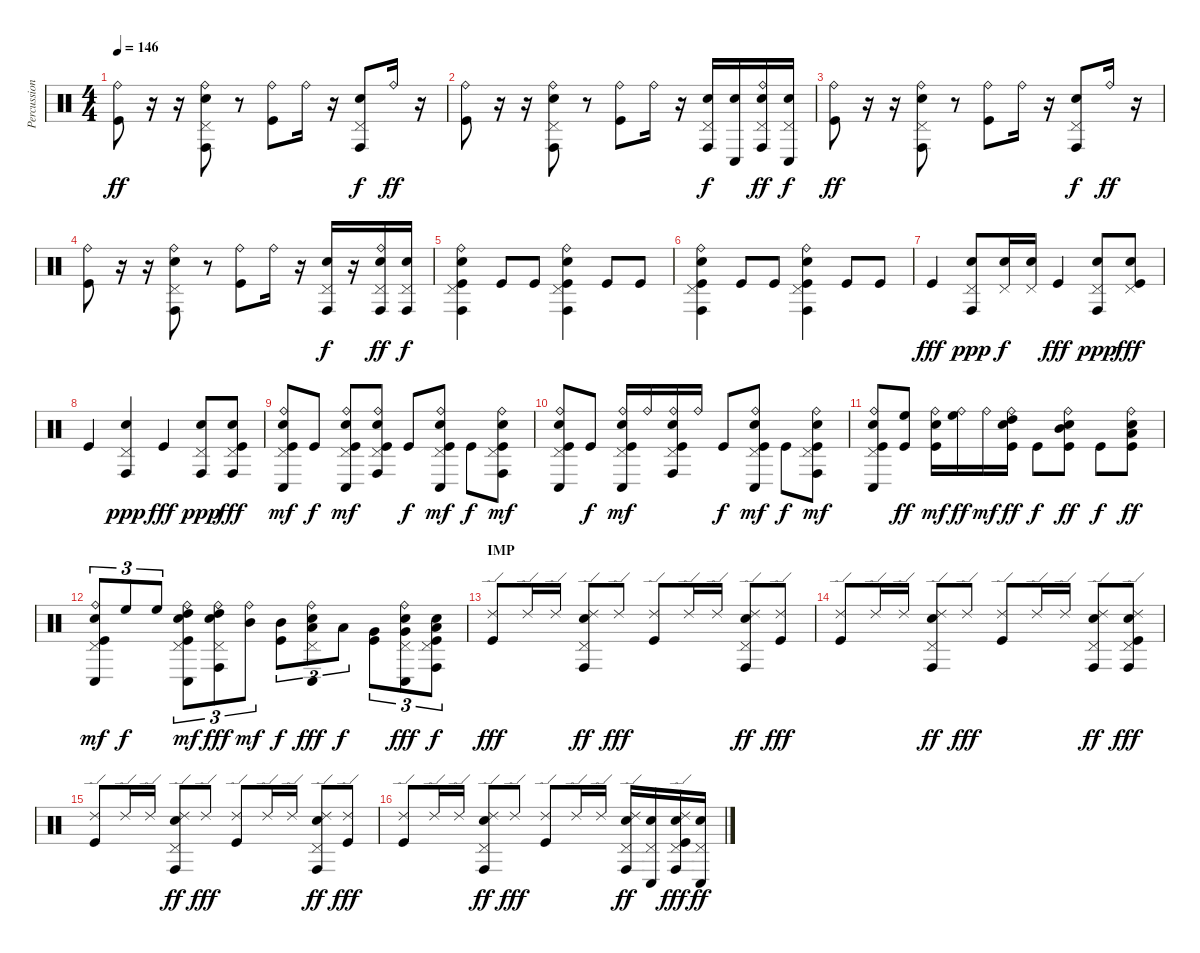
\track ("Percussion" "Percussion") {instrument percussion}
\staff {score}
\articulation defaults
\ts (4 4)
\tempo 146
\clef neutral
\ks c
("Ride (bell)" "Kick (hit)").8{dy ff} r.16 r.16 ("Ride (bell)" "Pedal Hi-Hat (hit)" "Conga high (hit)" "Electric Snare (hit)").8 r.8 ("Ride (bell)" "Kick (hit)").8 "Ride (bell)".16 r.16 ("Pedal Hi-Hat (hit)" "Conga high (hit)" "Electric Snare (hit)").8{dy f} "Ride (bell)".16{dy ff} r.16 |
("Ride (bell)" "Kick (hit)").8 r.16 r.16 ("Ride (bell)" "Pedal Hi-Hat (hit)" "Conga high (hit)" "Electric Snare (hit)").8 r.8 ("Ride (bell)" "Kick (hit)").8 "Ride (bell)".16 r.16 ("Pedal Hi-Hat (hit)" "Conga high (hit)" "Electric Snare (hit)").16{dy f} ("Conga low (hit)" "Electric Snare (hit)").16 ("Ride (bell)" "Pedal Hi-Hat (hit)" "Conga high (hit)" "Electric Snare (hit)").16{dy ff} ("Pedal Hi-Hat (hit)" "Conga low (hit)" "Electric Snare (hit)").16{dy f} |
("Ride (bell)" "Kick (hit)").8{dy ff} r.16 r.16 ("Ride (bell)" "Pedal Hi-Hat (hit)" "Conga high (hit)" "Electric Snare (hit)").8 r.8 ("Ride (bell)" "Kick (hit)").8 "Ride (bell)".16 r.16 ("Pedal Hi-Hat (hit)" "Conga high (hit)" "Electric Snare (hit)").8{dy f} "Ride (bell)".16{dy ff} r.16 |
("Ride (bell)" "Kick (hit)").8 r.16 r.16 ("Ride (bell)" "Pedal Hi-Hat (hit)" "Conga high (hit)" "Electric Snare (hit)").8 r.8 ("Ride (bell)" "Kick (hit)").8 "Ride (bell)".16 r.16 ("Pedal Hi-Hat (hit)" "Conga high (hit)" "Electric Snare (hit)").16{dy f} r.16 ("Ride (bell)" "Pedal Hi-Hat (hit)" "Conga high (hit)" "Electric Snare (hit)").16{dy ff} ("Pedal Hi-Hat (hit)" "Conga high (hit)" "Electric Snare (hit)").16{dy f} |
("Ride (bell)" "Pedal Hi-Hat (hit)" "Conga high (hit)" "Electric Snare (hit)" "Kick (hit)").4 "Kick (hit)".8 "Kick (hit)".8 ("Ride (bell)" "Pedal Hi-Hat (hit)" "Conga high (hit)" "Electric Snare (hit)" "Kick (hit)").4 "Kick (hit)".8 "Kick (hit)".8 |
("Ride (bell)" "Pedal Hi-Hat (hit)" "Conga high (hit)" "Electric Snare (hit)" "Kick (hit)").4 "Kick (hit)".8 "Kick (hit)".8 ("Ride (bell)" "Pedal Hi-Hat (hit)" "Conga high (hit)" "Electric Snare (hit)" "Kick (hit)").4 "Kick (hit)".8 "Kick (hit)".8 |
"Kick (hit)".4{dy fff} ("Pedal Hi-Hat (hit)" "Conga high (hit)" "Electric Snare (hit)").8{dy ppp} ("Pedal Hi-Hat (hit)" "Electric Snare (hit)").16{dy f} ("Pedal Hi-Hat (hit)" "Electric Snare (hit)").16 "Kick (hit)".4{dy fff} ("Pedal Hi-Hat (hit)" "Conga high (hit)" "Electric Snare (hit)").8{dy ppp} ("Pedal Hi-Hat (hit)" "Electric Snare (hit)" "Kick (hit)").8{dy fff} |
"Kick (hit)".4 ("Pedal Hi-Hat (hit)" "Conga high (hit)" "Electric Snare (hit)").4{dy ppp} "Kick (hit)".4{dy fff} ("Pedal Hi-Hat (hit)" "Conga high (hit)" "Electric Snare (hit)").8{dy ppp} ("Pedal Hi-Hat (hit)" "Conga high (hit)" "Electric Snare (hit)" "Kick (hit)").8{dy fff} |
("Ride (bell)" "Pedal Hi-Hat (hit)" "Conga low (hit)" "Electric Snare (hit)" "Kick (hit)").8{dy mf} "Kick (hit)".8{dy f} ("Ride (bell)" "Pedal Hi-Hat (hit)" "Conga low (hit)" "Electric Snare (hit)" "Kick (hit)").8{dy mf} ("Ride (bell)" "Pedal Hi-Hat (hit)" "Conga high (hit)" "Electric Snare (hit)" "Kick (hit)").8 "Kick (hit)".8{dy f} ("Ride (bell)" "Pedal Hi-Hat (hit)" "Conga low (hit)" "Electric Snare (hit)" "Kick (hit)").8{dy mf} "Kick (hit)".8{dy f} ("Ride (bell)" "Pedal Hi-Hat (hit)" "Conga high (hit)" "Electric Snare (hit)" "Kick (hit)").8{dy mf} |
("Ride (bell)" "Pedal Hi-Hat (hit)" "Conga low (hit)" "Electric Snare (hit)" "Kick (hit)").8 "Kick (hit)".8{dy f} ("Ride (bell)" "Pedal Hi-Hat (hit)" "Conga low (hit)" "Electric Snare (hit)" "Kick (hit)").16{dy mf} "Ride (bell)".16 ("Ride (bell)" "Pedal Hi-Hat (hit)" "Conga high (hit)" "Electric Snare (hit)" "Kick (hit)").16 "Ride (bell)".16 "Kick (hit)".8{dy f} ("Ride (bell)" "Pedal Hi-Hat (hit)" "Conga low (hit)" "Electric Snare (hit)" "Kick (hit)").8{dy mf} "Kick (hit)".8{dy f} ("Ride (bell)" "Pedal Hi-Hat (hit)" "Conga high (hit)" "Electric Snare (hit)" "Kick (hit)").8{dy mf} |
("Ride (bell)" "Pedal Hi-Hat (hit)" "Conga low (hit)" "Electric Snare (hit)" "Kick (hit)").8 ("High Floor Tom (hit)" "Kick (hit)").8{dy ff} ("Ride (bell)" "Electric Snare (hit)" "Kick (hit)").16{dy mf} ("Ride (bell)" "High Floor Tom (hit)").16{dy ff} "Ride (bell)".16{dy mf} ("Ride (bell)" "High Tom (hit)" "Electric Snare (hit)" "Kick (hit)").16{dy ff} "Kick (hit)".8{dy f} ("Ride (bell)" "Mid Tom (hit)" "Electric Snare (hit)" "Kick (hit)").8{dy ff} "Kick (hit)".8{dy f} ("Ride (bell)" "Low Tom (hit)" "Electric Snare (hit)" "Kick (hit)").8{dy ff} |
("Ride (bell)" "Pedal Hi-Hat (hit)" "Conga low (hit)" "Electric Snare (hit)" "Kick (hit)").8{tu (3 2) dy mf} "High Floor Tom (hit)".8{tu (3 2) dy f} "High Floor Tom (hit)".8{tu (3 2)} ("Ride (bell)" "Pedal Hi-Hat (hit)" "High Tom (hit)" "Conga low (hit)" "Electric Snare (hit)" "Kick (hit)").8{tu (3 2) dy mf} ("Ride (bell)" "Pedal Hi-Hat (hit)" "High Tom (hit)" "Conga high (hit)" "Electric Snare (hit)").8{tu (3 2) dy fff} ("Ride (bell)" "Mid Tom (hit)").8{tu (3 2) dy mf} ("Mid Tom (hit)" "Kick (hit)").8{tu (3 2) dy f} ("Ride (bell)" "Pedal Hi-Hat (hit)" "Low Tom (hit)" "Conga low (hit)" "Electric Snare (hit)").8{tu (3 2) dy fff} "Low Tom (hit)".8{tu (3 2) dy f} ("Very Low Tom (hit)" "Kick (hit)").8{tu (3 2)} ("Ride (bell)" "Pedal Hi-Hat (hit)" "Very Low Tom (hit)" "Conga low (hit)" "Electric Snare (hit)").8{tu (3 2) dy fff} ("Pedal Hi-Hat (hit)" "Low Floor Tom (hit)" "Conga high (hit)" "Electric Snare (hit)" "Kick (hit)").8{tu (3 2) dy f} |
\section ("" "IMP")
("Ride (edge) 2" "Kick (hit)").8{dy fff} "Ride (edge) 2".16 "Ride (edge) 2".16 ("Ride (edge) 2" "Pedal Hi-Hat (hit)" "Conga high (hit)" "Electric Snare (hit)").8{dy ff} "Ride (edge) 2".8{dy fff} ("Ride (edge) 2" "Kick (hit)").8 "Ride (edge) 2".16 "Ride (edge) 2".16 ("Ride (edge) 2" "Pedal Hi-Hat (hit)" "Conga high (hit)" "Electric Snare (hit)").8{dy ff} ("Ride (edge) 2" "Kick (hit)").8{dy fff} |
("Ride (edge) 2" "Kick (hit)").8 "Ride (edge) 2".16 "Ride (edge) 2".16 ("Ride (edge) 2" "Pedal Hi-Hat (hit)" "Conga high (hit)" "Electric Snare (hit)").8{dy ff} "Ride (edge) 2".8{dy fff} ("Ride (edge) 2" "Kick (hit)").8 "Ride (edge) 2".16 "Ride (edge) 2".16 ("Ride (edge) 2" "Pedal Hi-Hat (hit)" "Conga high (hit)" "Electric Snare (hit)").8{dy ff} ("Ride (edge) 2" "Pedal Hi-Hat (hit)" "Conga high (hit)" "Electric Snare (hit)" "Kick (hit)").8{dy fff} |
("Ride (edge) 2" "Kick (hit)").8 "Ride (edge) 2".16 "Ride (edge) 2".16 ("Ride (edge) 2" "Pedal Hi-Hat (hit)" "Conga high (hit)" "Electric Snare (hit)").8{dy ff} "Ride (edge) 2".8{dy fff} ("Ride (edge) 2" "Kick (hit)").8 "Ride (edge) 2".16 "Ride (edge) 2".16 ("Ride (edge) 2" "Pedal Hi-Hat (hit)" "Conga high (hit)" "Electric Snare (hit)").8{dy ff} ("Ride (edge) 2" "Kick (hit)").8{dy fff} |
("Ride (edge) 2" "Kick (hit)").8 "Ride (edge) 2".16 "Ride (edge) 2".16 ("Ride (edge) 2" "Pedal Hi-Hat (hit)" "Conga high (hit)" "Electric Snare (hit)").8{dy ff} "Ride (edge) 2".8{dy fff} ("Ride (edge) 2" "Kick (hit)").8 "Ride (edge) 2".16 "Ride (edge) 2".16 ("Ride (edge) 2" "Pedal Hi-Hat (hit)" "Conga high (hit)" "Electric Snare (hit)").16{dy ff} ("Pedal Hi-Hat (hit)" "Conga low (hit)" "Electric Snare (hit)").16 ("Ride (edge) 2" "Pedal Hi-Hat (hit)" "Conga high (hit)" "Electric Snare (hit)" "Kick (hit)").16{dy fff} ("Pedal Hi-Hat (hit)" "Conga low (hit)" "Electric Snare (hit)").16{dy ff}
